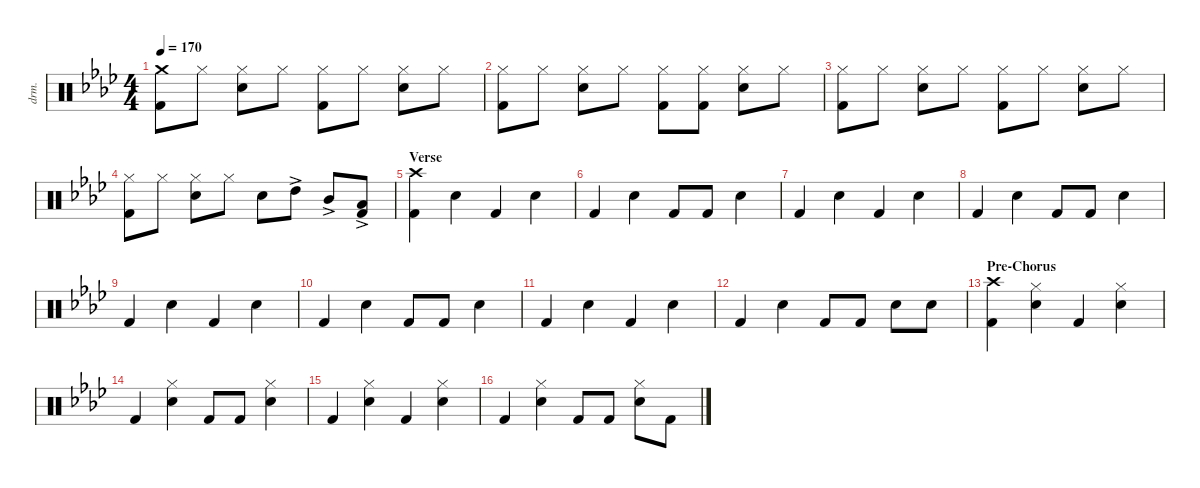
\defaultSystemsLayout 4
\hideDynamics
\bracketExtendMode nobrackets
\otherSystemsTrackNameOrientation horizontal
\track ("Drumkit" "drm.") {instrument percussion}
\staff {score}
\articulation defaults
\ts (4 4)
\tempo 170
\clef neutral
\ks fminor
("Kick (hit) 2"{acc forcenatural} "Crash medium (hit)"{acc forcenatural}).8{dy mf beam Down} "Hi-Hat (closed)"{acc forcenatural}.8{beam Down} ("Hi-Hat (closed)"{acc forcenatural} "Snare (hit) 2"{acc forcenatural}).8{beam Down} "Hi-Hat (closed)"{acc forcenatural}.8{beam Down} ("Hi-Hat (closed)"{acc forcenatural} "Kick (hit) 2"{acc forcenatural}).8{beam Down} "Hi-Hat (closed)"{acc forcenatural}.8{beam Down} ("Hi-Hat (closed)"{acc forcenatural} "Snare (hit) 2"{acc forcenatural}).8{beam Down} "Hi-Hat (closed)"{acc forcenatural}.8{beam Down} |
("Hi-Hat (closed)"{acc forcenatural} "Kick (hit) 2"{acc forcenatural}).8{beam Down} "Hi-Hat (closed)"{acc forcenatural}.8{beam Down} ("Hi-Hat (closed)"{acc forcenatural} "Snare (hit) 2"{acc forcenatural}).8{beam Down} "Hi-Hat (closed)"{acc forcenatural}.8{beam Down} ("Hi-Hat (closed)"{acc forcenatural} "Kick (hit) 2"{acc forcenatural}).8{beam Down} ("Hi-Hat (closed)"{acc forcenatural} "Kick (hit) 2"{acc forcenatural}).8{beam Down} ("Hi-Hat (closed)"{acc forcenatural} "Snare (hit) 2"{acc forcenatural}).8{beam Down} "Hi-Hat (closed)"{acc forcenatural}.8{beam Down} |
("Hi-Hat (closed)"{acc forcenatural} "Kick (hit) 2"{acc forcenatural}).8{beam Down} "Hi-Hat (closed)"{acc forcenatural}.8{beam Down} ("Hi-Hat (closed)"{acc forcenatural} "Snare (hit) 2"{acc forcenatural}).8{beam Down} "Hi-Hat (closed)"{acc forcenatural}.8{beam Down} ("Hi-Hat (closed)"{acc forcenatural} "Kick (hit) 2"{acc forcenatural}).8{beam Down} "Hi-Hat (closed)"{acc forcenatural}.8{beam Down} ("Hi-Hat (closed)"{acc forcenatural} "Snare (hit) 2"{acc forcenatural}).8{beam Down} "Hi-Hat (closed)"{acc forcenatural}.8{beam Down} |
("Hi-Hat (closed)"{acc forcenatural} "Kick (hit) 2"{acc forcenatural}).8{beam Down} "Hi-Hat (closed)"{acc forcenatural}.8{beam Down} ("Hi-Hat (closed)"{acc forcenatural} "Snare (hit) 2"{acc forcenatural}).8{beam Down} "Hi-Hat (closed)"{acc forcenatural}.8{beam Down} "Snare (hit) 2"{acc forcenatural}.8{beam Down} "High Tom (hit)"{ac acc forcenatural}.8{beam Down} "Mid Tom (hit)"{ac acc forcenatural}.8{beam Up} ("Low Tom (hit)"{ac acc forcenatural} "Kick (hit) 2"{acc forcenatural}).8{beam Up} |
\section ("" "Verse")
("Kick (hit) 2"{acc forcenatural} "Crash high (hit)"{acc forcenatural}).4{beam Down} "Snare (hit) 2"{acc forcenatural}.4{beam Down} "Kick (hit) 2"{acc forcenatural}.4{beam Up} "Snare (hit) 2"{acc forcenatural}.4{beam Down} |
"Kick (hit) 2"{acc forcenatural}.4{beam Up} "Snare (hit) 2"{acc forcenatural}.4{beam Down} "Kick (hit) 2"{acc forcenatural}.8{beam Up} "Kick (hit) 2"{acc forcenatural}.8{beam Up} "Snare (hit) 2"{acc forcenatural}.4{beam Down} |
"Kick (hit) 2"{acc forcenatural}.4{beam Up} "Snare (hit) 2"{acc forcenatural}.4{beam Down} "Kick (hit) 2"{acc forcenatural}.4{beam Up} "Snare (hit) 2"{acc forcenatural}.4{beam Down} |
"Kick (hit) 2"{acc forcenatural}.4{beam Up} "Snare (hit) 2"{acc forcenatural}.4{beam Down} "Kick (hit) 2"{acc forcenatural}.8{beam Up} "Kick (hit) 2"{acc forcenatural}.8{beam Up} "Snare (hit) 2"{acc forcenatural}.4{beam Down} |
"Kick (hit) 2"{acc forcenatural}.4{beam Up} "Snare (hit) 2"{acc forcenatural}.4{beam Down} "Kick (hit) 2"{acc forcenatural}.4{beam Up} "Snare (hit) 2"{acc forcenatural}.4{beam Down} |
"Kick (hit) 2"{acc forcenatural}.4{beam Up} "Snare (hit) 2"{acc forcenatural}.4{beam Down} "Kick (hit) 2"{acc forcenatural}.8{beam Up} "Kick (hit) 2"{acc forcenatural}.8{beam Up} "Snare (hit) 2"{acc forcenatural}.4{beam Down} |
"Kick (hit) 2"{acc forcenatural}.4{beam Up} "Snare (hit) 2"{acc forcenatural}.4{beam Down} "Kick (hit) 2"{acc forcenatural}.4{beam Up} "Snare (hit) 2"{acc forcenatural}.4{beam Down} |
"Kick (hit) 2"{acc forcenatural}.4{beam Up} "Snare (hit) 2"{acc forcenatural}.4{beam Down} "Kick (hit) 2"{acc forcenatural}.8{beam Up} "Kick (hit) 2"{acc forcenatural}.8{beam Up} "Snare (hit) 2"{acc forcenatural}.8{beam Down} "Snare (hit) 2"{acc forcenatural}.8{beam Down} |
\section ("" "Pre-Chorus")
("Kick (hit) 2"{acc forcenatural} "Crash high (hit)"{acc forcenatural}).4{beam Down} ("Snare (hit) 2"{acc forcenatural} "Hi-Hat (closed)"{acc forcenatural}).4{beam Down} "Kick (hit) 2"{acc forcenatural}.4{beam Up} ("Snare (hit) 2"{acc forcenatural} "Hi-Hat (closed)"{acc forcenatural}).4{beam Down} |
"Kick (hit) 2"{acc forcenatural}.4{beam Up} ("Snare (hit) 2"{acc forcenatural} "Hi-Hat (closed)"{acc forcenatural}).4{beam Down} "Kick (hit) 2"{acc forcenatural}.8{beam Up} "Kick (hit) 2"{acc forcenatural}.8{beam Up} ("Snare (hit) 2"{acc forcenatural} "Hi-Hat (closed)"{acc forcenatural}).4{beam Down} |
"Kick (hit) 2"{acc forcenatural}.4{beam Up} ("Snare (hit) 2"{acc forcenatural} "Hi-Hat (closed)"{acc forcenatural}).4{beam Down} "Kick (hit) 2"{acc forcenatural}.4{beam Up} ("Snare (hit) 2"{acc forcenatural} "Hi-Hat (closed)"{acc forcenatural}).4{beam Down} |
"Kick (hit) 2"{acc forcenatural}.4{beam Up} ("Snare (hit) 2"{acc forcenatural} "Hi-Hat (closed)"{acc forcenatural}).4{beam Down} "Kick (hit) 2"{acc forcenatural}.8{beam Up} "Kick (hit) 2"{acc forcenatural}.8{beam Up} ("Snare (hit) 2"{acc forcenatural} "Hi-Hat (closed)"{acc forcenatural}).8{beam Down} "Kick (hit) 2"{acc forcenatural}.8{beam Down}
